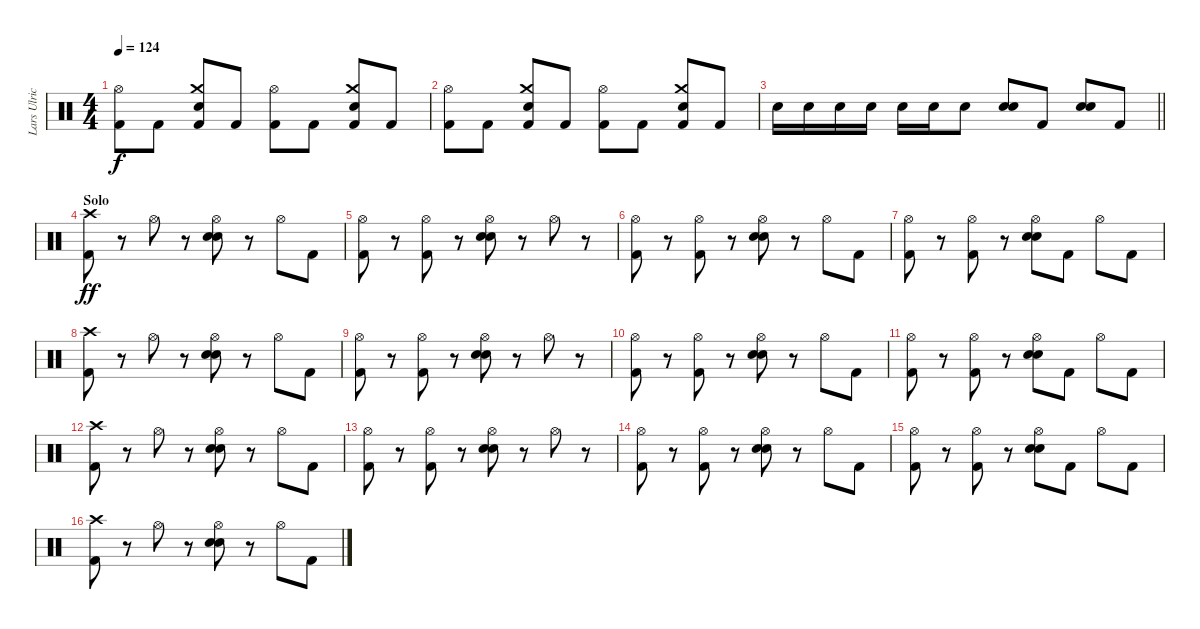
\track ("Lars Ulrich" "Lars Ulric") {instrument percussion}
\staff {score}
\articulation defaults
\ts (4 4)
\tempo 124
\clef neutral
\ks c
("Hi-Hat (open)" "Kick (hit) 2").8{dy f} "Kick (hit) 2".8 ("Crash medium (hit)" "Electric Snare (hit)" "Kick (hit) 2").8 "Kick (hit) 2".8 ("Hi-Hat (open)" "Kick (hit) 2").8 "Kick (hit) 2".8 ("Crash medium (hit)" "Electric Snare (hit)" "Kick (hit) 2").8 "Kick (hit) 2".8 |
("Hi-Hat (open)" "Kick (hit) 2").8 "Kick (hit) 2".8 ("Crash medium (hit)" "Electric Snare (hit)" "Kick (hit) 2").8 "Kick (hit) 2".8 ("Hi-Hat (open)" "Kick (hit) 2").8 "Kick (hit) 2".8 ("Crash medium (hit)" "Electric Snare (hit)" "Kick (hit) 2").8 "Kick (hit) 2".8 |
\barLineRight lightlight "Electric Snare (hit)".16 "Electric Snare (hit)".16 "Electric Snare (hit)".16 "Electric Snare (hit)".16 "Electric Snare (hit)".16 "Electric Snare (hit)".16 "Electric Snare (hit)".8
("Electric Snare (hit)" "Electric Snare (hit)").8{bd 240} "Kick (hit) 2".8 ("Electric Snare (hit)" "Electric Snare (hit)").8{bd 240} "Kick (hit) 2".8 |
\section ("" "Solo")
("Crash high (hit)" "Kick (hit) 2").8{dy ff} r.8 "Hi-Hat (open)".8 r.8 ("Hi-Hat (open)" "Electric Snare (hit)" "Electric Snare (hit)").8 r.8 "Hi-Hat (open)".8 "Kick (hit) 2".8 |
("Hi-Hat (open)" "Kick (hit) 2").8 r.8 ("Hi-Hat (open)" "Kick (hit) 2").8 r.8 ("Hi-Hat (open)" "Electric Snare (hit)" "Electric Snare (hit)").8 r.8 "Hi-Hat (open)".8 r.8 |
("Hi-Hat (open)" "Kick (hit) 2").8 r.8 ("Hi-Hat (open)" "Kick (hit) 2").8 r.8 ("Hi-Hat (open)" "Electric Snare (hit)" "Electric Snare (hit)").8 r.8 "Hi-Hat (open)".8 "Kick (hit) 2".8 |
("Hi-Hat (open)" "Kick (hit) 2").8 r.8 ("Hi-Hat (open)" "Kick (hit) 2").8 r.8 ("Hi-Hat (open)" "Electric Snare (hit)" "Electric Snare (hit)").8 "Kick (hit) 2".8 "Hi-Hat (open)".8 "Kick (hit) 2".8 |
("Crash high (hit)" "Kick (hit) 2").8 r.8 "Hi-Hat (open)".8 r.8 ("Hi-Hat (open)" "Electric Snare (hit)" "Electric Snare (hit)").8 r.8 "Hi-Hat (open)".8 "Kick (hit) 2".8 |
("Hi-Hat (open)" "Kick (hit) 2").8 r.8 ("Hi-Hat (open)" "Kick (hit) 2").8 r.8 ("Hi-Hat (open)" "Electric Snare (hit)" "Electric Snare (hit)").8 r.8 "Hi-Hat (open)".8 r.8 |
("Hi-Hat (open)" "Kick (hit) 2").8 r.8 ("Hi-Hat (open)" "Kick (hit) 2").8 r.8 ("Hi-Hat (open)" "Electric Snare (hit)" "Electric Snare (hit)").8 r.8 "Hi-Hat (open)".8 "Kick (hit) 2".8 |
("Hi-Hat (open)" "Kick (hit) 2").8 r.8 ("Hi-Hat (open)" "Kick (hit) 2").8 r.8 ("Hi-Hat (open)" "Electric Snare (hit)" "Electric Snare (hit)").8 "Kick (hit) 2".8 "Hi-Hat (open)".8 "Kick (hit) 2".8 |
("Crash high (hit)" "Kick (hit) 2").8 r.8 "Hi-Hat (open)".8 r.8 ("Hi-Hat (open)" "Electric Snare (hit)" "Electric Snare (hit)").8 r.8 "Hi-Hat (open)".8 "Kick (hit) 2".8 |
("Hi-Hat (open)" "Kick (hit) 2").8 r.8 ("Hi-Hat (open)" "Kick (hit) 2").8 r.8 ("Hi-Hat (open)" "Electric Snare (hit)" "Electric Snare (hit)").8 r.8 "Hi-Hat (open)".8 r.8 |
("Hi-Hat (open)" "Kick (hit) 2").8 r.8 ("Hi-Hat (open)" "Kick (hit) 2").8 r.8 ("Hi-Hat (open)" "Electric Snare (hit)" "Electric Snare (hit)").8 r.8 "Hi-Hat (open)".8 "Kick (hit) 2".8 |
("Hi-Hat (open)" "Kick (hit) 2").8 r.8 ("Hi-Hat (open)" "Kick (hit) 2").8 r.8 ("Hi-Hat (open)" "Electric Snare (hit)" "Electric Snare (hit)").8 "Kick (hit) 2".8 "Hi-Hat (open)".8 "Kick (hit) 2".8 |
("Crash high (hit)" "Kick (hit) 2").8 r.8 "Hi-Hat (open)".8 r.8 ("Hi-Hat (open)" "Electric Snare (hit)" "Electric Snare (hit)").8 r.8 "Hi-Hat (open)".8 "Kick (hit) 2".8
